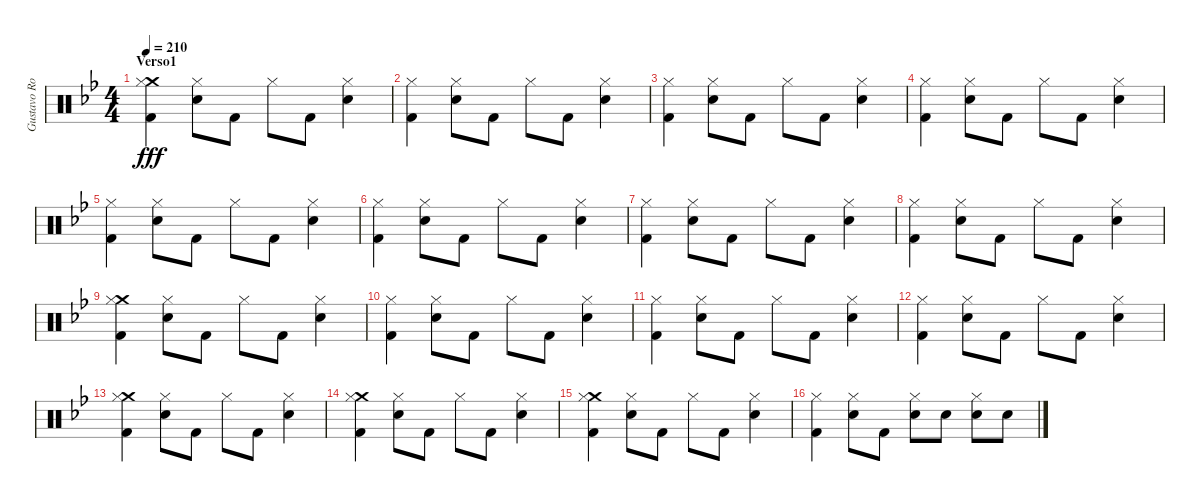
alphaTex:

\track ("Gustavo Rowek" "Gustavo Ro") {instrument percussion}
\staff {score}
\articulation defaults
\ts (4 4)
\section ("" "Verso1")
\tempo 210
\clef neutral
\ks gminor
("Crash medium (hit)" "Hi-Hat (closed)" "Kick (hit) 2").4{dy fff} ("Hi-Hat (closed)" "Snare (hit) 2").8 "Kick (hit) 2".8 "Hi-Hat (closed)".8 "Kick (hit) 2".8 ("Hi-Hat (closed)" "Snare (hit) 2").4 |
("Hi-Hat (closed)" "Kick (hit) 2").4 ("Hi-Hat (closed)" "Snare (hit) 2").8 "Kick (hit) 2".8 "Hi-Hat (closed)".8 "Kick (hit) 2".8 ("Hi-Hat (closed)" "Snare (hit) 2").4 |
("Hi-Hat (closed)" "Kick (hit) 2").4 ("Hi-Hat (closed)" "Snare (hit) 2").8 "Kick (hit) 2".8 "Hi-Hat (closed)".8 "Kick (hit) 2".8 ("Hi-Hat (closed)" "Snare (hit) 2").4 |
("Hi-Hat (closed)" "Kick (hit) 2").4 ("Hi-Hat (closed)" "Snare (hit) 2").8 "Kick (hit) 2".8 "Hi-Hat (closed)".8 "Kick (hit) 2".8 ("Hi-Hat (closed)" "Snare (hit) 2").4 |
("Hi-Hat (closed)" "Kick (hit) 2").4 ("Hi-Hat (closed)" "Snare (hit) 2").8 "Kick (hit) 2".8 "Hi-Hat (closed)".8 "Kick (hit) 2".8 ("Hi-Hat (closed)" "Snare (hit) 2").4 |
("Hi-Hat (closed)" "Kick (hit) 2").4 ("Hi-Hat (closed)" "Snare (hit) 2").8 "Kick (hit) 2".8 "Hi-Hat (closed)".8 "Kick (hit) 2".8 ("Hi-Hat (closed)" "Snare (hit) 2").4 |
("Hi-Hat (closed)" "Kick (hit) 2").4 ("Hi-Hat (closed)" "Snare (hit) 2").8 "Kick (hit) 2".8 "Hi-Hat (closed)".8 "Kick (hit) 2".8 ("Hi-Hat (closed)" "Snare (hit) 2").4 |
("Hi-Hat (closed)" "Kick (hit) 2").4 ("Hi-Hat (closed)" "Snare (hit) 2").8 "Kick (hit) 2".8 "Hi-Hat (closed)".8 "Kick (hit) 2".8 ("Hi-Hat (closed)" "Snare (hit) 2").4 |
("Crash medium (hit)" "Hi-Hat (closed)" "Kick (hit) 2").4 ("Hi-Hat (closed)" "Snare (hit) 2").8 "Kick (hit) 2".8 "Hi-Hat (closed)".8 "Kick (hit) 2".8 ("Hi-Hat (closed)" "Snare (hit) 2").4 |
("Hi-Hat (closed)" "Kick (hit) 2").4 ("Hi-Hat (closed)" "Snare (hit) 2").8 "Kick (hit) 2".8 "Hi-Hat (closed)".8 "Kick (hit) 2".8 ("Hi-Hat (closed)" "Snare (hit) 2").4 |
("Hi-Hat (closed)" "Kick (hit) 2").4 ("Hi-Hat (closed)" "Snare (hit) 2").8 "Kick (hit) 2".8 "Hi-Hat (closed)".8 "Kick (hit) 2".8 ("Hi-Hat (closed)" "Snare (hit) 2").4 |
("Hi-Hat (closed)" "Kick (hit) 2").4 ("Hi-Hat (closed)" "Snare (hit) 2").8 "Kick (hit) 2".8 "Hi-Hat (closed)".8 "Kick (hit) 2".8 ("Hi-Hat (closed)" "Snare (hit) 2").4 |
("Crash medium (hit)" "Hi-Hat (closed)" "Kick (hit) 2").4 ("Hi-Hat (closed)" "Snare (hit) 2").8 "Kick (hit) 2".8 "Hi-Hat (closed)".8 "Kick (hit) 2".8 ("Hi-Hat (closed)" "Snare (hit) 2").4 |
("Crash medium (hit)" "Hi-Hat (closed)" "Kick (hit) 2").4 ("Hi-Hat (closed)" "Snare (hit) 2").8 "Kick (hit) 2".8 "Hi-Hat (closed)".8 "Kick (hit) 2".8 ("Hi-Hat (closed)" "Snare (hit) 2").4 |
("Crash medium (hit)" "Hi-Hat (closed)" "Kick (hit) 2").4 ("Hi-Hat (closed)" "Snare (hit) 2").8 "Kick (hit) 2".8 "Hi-Hat (closed)".8 "Kick (hit) 2".8 ("Hi-Hat (closed)" "Snare (hit) 2").4 |
("Hi-Hat (closed)" "Kick (hit) 2").4 ("Hi-Hat (closed)" "Snare (hit) 2").8 "Kick (hit) 2".8 ("Hi-Hat (closed)" "Snare (hit) 2").8 "Snare (hit) 2".8 ("Hi-Hat (closed)" "Snare (hit) 2").8 "Snare (hit) 2".8
